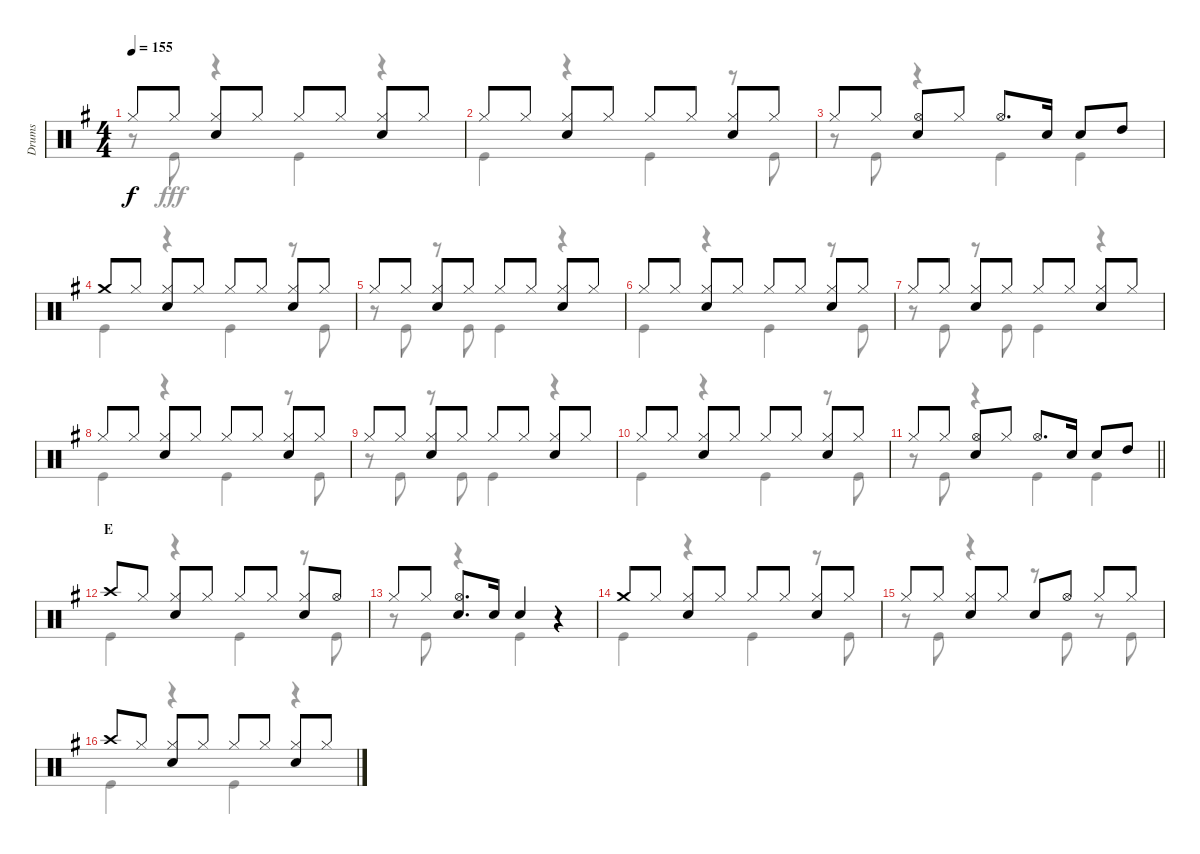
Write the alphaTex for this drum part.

\track ("Drums" "Drums") {instrument percussion}
\staff {score}
\articulation defaults
\voice
\ts (4 4)
\tempo 155
\clef neutral
\ks g "Hi-Hat (closed)".8{dy f} "Hi-Hat (closed)".8
("Hi-Hat (closed)" "Snare (hit) 2").8 "Hi-Hat (closed)".8 "Hi-Hat (closed)".8 "Hi-Hat (closed)".8 ("Hi-Hat (closed)" "Snare (hit) 2").8 "Hi-Hat (closed)".8 |
"Hi-Hat (closed)".8 "Hi-Hat (closed)".8 ("Hi-Hat (closed)" "Snare (hit) 2").8 "Hi-Hat (closed)".8 "Hi-Hat (closed)".8 "Hi-Hat (closed)".8 ("Hi-Hat (closed)" "Snare (hit) 2").8 "Hi-Hat (closed)".8 |
"Hi-Hat (closed)".8 "Hi-Hat (closed)".8 ("Hi-Hat (open)" "Snare (hit) 2").8 "Hi-Hat (closed)".8 "Hi-Hat (open)".8{d} "Snare (hit) 2".16 "Snare (hit) 2".8 "High Tom (hit)".8 |
"Crash medium (hit)".8 "Hi-Hat (closed)".8 ("Hi-Hat (closed)" "Snare (hit) 2").8 "Hi-Hat (closed)".8 "Hi-Hat (closed)".8 "Hi-Hat (closed)".8 ("Hi-Hat (closed)" "Snare (hit) 2").8 "Hi-Hat (closed)".8 |
"Hi-Hat (closed)".8 "Hi-Hat (closed)".8 ("Hi-Hat (closed)" "Snare (hit) 2").8 "Hi-Hat (closed)".8 "Hi-Hat (closed)".8 "Hi-Hat (closed)".8 ("Hi-Hat (closed)" "Snare (hit) 2").8 "Hi-Hat (closed)".8 |
"Hi-Hat (closed)".8 "Hi-Hat (closed)".8 ("Hi-Hat (closed)" "Snare (hit) 2").8 "Hi-Hat (closed)".8 "Hi-Hat (closed)".8 "Hi-Hat (closed)".8 ("Hi-Hat (closed)" "Snare (hit) 2").8 "Hi-Hat (closed)".8 |
"Hi-Hat (closed)".8 "Hi-Hat (closed)".8 ("Hi-Hat (closed)" "Snare (hit) 2").8 "Hi-Hat (closed)".8 "Hi-Hat (closed)".8 "Hi-Hat (closed)".8 ("Hi-Hat (closed)" "Snare (hit) 2").8 "Hi-Hat (closed)".8 |
"Hi-Hat (closed)".8 "Hi-Hat (closed)".8 ("Hi-Hat (closed)" "Snare (hit) 2").8 "Hi-Hat (closed)".8 "Hi-Hat (closed)".8 "Hi-Hat (closed)".8 ("Hi-Hat (closed)" "Snare (hit) 2").8 "Hi-Hat (closed)".8 |
"Hi-Hat (closed)".8 "Hi-Hat (closed)".8 ("Hi-Hat (closed)" "Snare (hit) 2").8 "Hi-Hat (closed)".8 "Hi-Hat (closed)".8 "Hi-Hat (closed)".8 ("Hi-Hat (closed)" "Snare (hit) 2").8 "Hi-Hat (closed)".8 |
"Hi-Hat (closed)".8 "Hi-Hat (closed)".8 ("Hi-Hat (closed)" "Snare (hit) 2").8 "Hi-Hat (closed)".8 "Hi-Hat (closed)".8 "Hi-Hat (closed)".8 ("Hi-Hat (closed)" "Snare (hit) 2").8 "Hi-Hat (closed)".8 |
\barLineRight lightlight "Hi-Hat (closed)".8 "Hi-Hat (closed)".8
("Hi-Hat (open)" "Snare (hit) 2").8 "Hi-Hat (closed)".8 "Hi-Hat (open)".8{d} "Snare (hit) 2".16 "Snare (hit) 2".8 "High Tom (hit)".8 |
\section ("" "E")
"Crash high (hit)".8 "Hi-Hat (closed)".8 ("Hi-Hat (closed)" "Snare (hit) 2").8 "Hi-Hat (closed)".8 "Hi-Hat (closed)".8 "Hi-Hat (closed)".8 ("Hi-Hat (closed)" "Snare (hit) 2").8 "Hi-Hat (open)".8 |
"Hi-Hat (closed)".8 "Hi-Hat (closed)".8 ("Hi-Hat (open)" "Snare (hit) 2").8{d} "Snare (hit) 2".16 "Snare (hit) 2".4 r.4 |
"Crash medium (hit)".8 "Hi-Hat (closed)".8 ("Hi-Hat (closed)" "Snare (hit) 2").8 "Hi-Hat (closed)".8 "Hi-Hat (closed)".8 "Hi-Hat (closed)".8 ("Hi-Hat (closed)" "Snare (hit) 2").8 "Hi-Hat (closed)".8 |
"Hi-Hat (closed)".8 "Hi-Hat (closed)".8 ("Hi-Hat (closed)" "Snare (hit) 2").8 "Hi-Hat (closed)".8 "Snare (hit) 2".8 "Hi-Hat (open)".8 "Hi-Hat (closed)".8 "Hi-Hat (closed)".8 |
"Crash high (hit)".8 "Hi-Hat (closed)".8 ("Hi-Hat (closed)" "Snare (hit) 2").8 "Hi-Hat (closed)".8 "Hi-Hat (closed)".8 "Hi-Hat (closed)".8 ("Hi-Hat (closed)" "Snare (hit) 2").8 "Hi-Hat (closed)".8
\voice
\clef neutral
\ottava regular
\simile none
\ks g
r.8{dy fff} "Kick (hit)".8 r.4 "Kick (hit)".4 r.4 |
"Kick (hit)".4 r.4 "Kick (hit)".4 r.8 "Kick (hit)".8 |
r.8 "Kick (hit)".8 r.4 "Kick (hit)".4 "Kick (hit)".4 |
"Kick (hit)".4 r.4 "Kick (hit)".4 r.8 "Kick (hit)".8 |
r.8 "Kick (hit)".8 r.8 "Kick (hit)".8 "Kick (hit)".4 r.4 |
"Kick (hit)".4 r.4 "Kick (hit)".4 r.8 "Kick (hit)".8 |
r.8 "Kick (hit)".8 r.8 "Kick (hit)".8 "Kick (hit)".4 r.4 |
"Kick (hit)".4 r.4 "Kick (hit)".4 r.8 "Kick (hit)".8 |
r.8 "Kick (hit)".8 r.8 "Kick (hit)".8 "Kick (hit)".4 r.4 |
"Kick (hit)".4 r.4 "Kick (hit)".4 r.8 "Kick (hit)".8 |
\barLineRight lightlight
r.8 "Kick (hit)".8 r.4 "Kick (hit)".4 "Kick (hit)".4 |
"Kick (hit)".4 r.4 "Kick (hit)".4 r.8 "Kick (hit)".8 |
r.8 "Kick (hit)".8 r.4 "Kick (hit)".4 r.4 |
"Kick (hit)".4 r.4 "Kick (hit)".4 r.8 "Kick (hit)".8 |
r.8 "Kick (hit)".8 r.4 r.8 "Kick (hit)".8 r.8 "Kick (hit)".8 |
"Kick (hit)".4 r.4 "Kick (hit)".4 r.4
